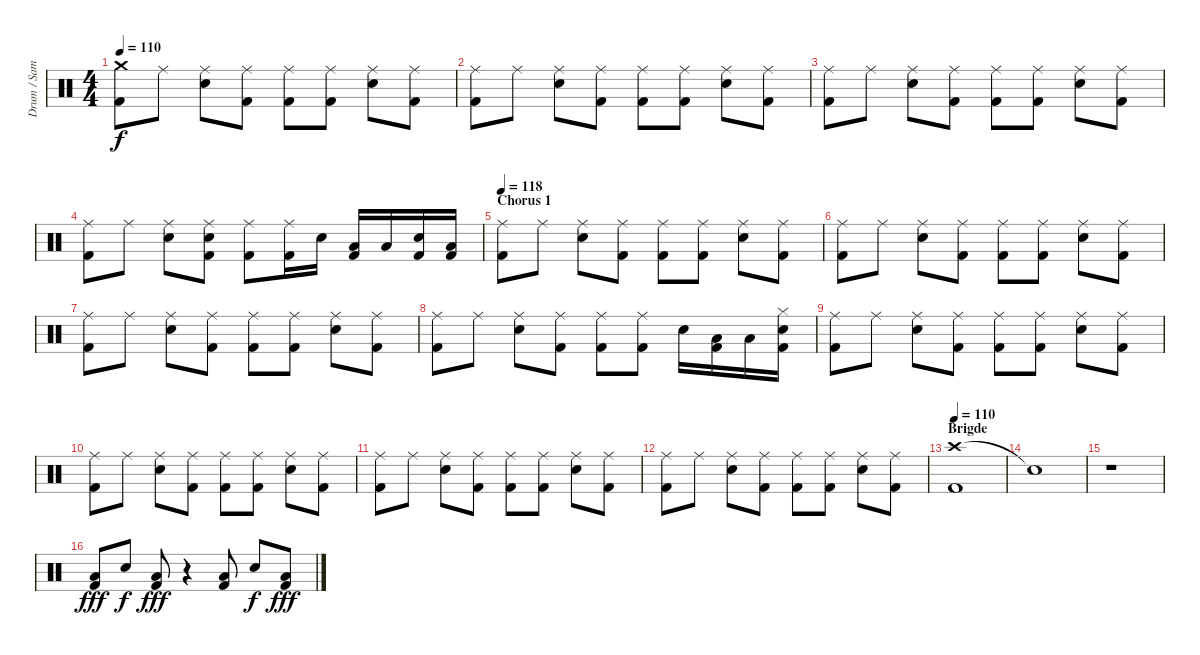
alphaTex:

\track ("Drum / Sam" "Drum / Sam") {instrument percussion}
\staff {score}
\articulation defaults
\ts (4 4)
\tempo 110
\clef neutral
\ks c
("Crash medium (hit)" "Kick (hit) 2").8{dy f} "Ride (middle)".8 ("Ride (middle)" "Snare (hit) 2").8 ("Ride (middle)" "Kick (hit) 2").8 ("Ride (middle)" "Kick (hit) 2").8 ("Ride (middle)" "Kick (hit) 2").8 ("Ride (middle)" "Snare (hit) 2").8 ("Ride (middle)" "Kick (hit) 2").8 |
("Ride (middle)" "Kick (hit) 2").8 "Ride (middle)".8 ("Ride (middle)" "Snare (hit) 2").8 ("Ride (middle)" "Kick (hit) 2").8 ("Ride (middle)" "Kick (hit) 2").8 ("Ride (middle)" "Kick (hit) 2").8 ("Ride (middle)" "Snare (hit) 2").8 ("Ride (middle)" "Kick (hit) 2").8 |
("Ride (middle)" "Kick (hit) 2").8 "Ride (middle)".8 ("Ride (middle)" "Snare (hit) 2").8 ("Ride (middle)" "Kick (hit) 2").8 ("Ride (middle)" "Kick (hit) 2").8 ("Ride (middle)" "Kick (hit) 2").8 ("Ride (middle)" "Snare (hit) 2").8 ("Ride (middle)" "Kick (hit) 2").8 |
("Ride (middle)" "Kick (hit) 2").8 "Ride (middle)".8 ("Ride (middle)" "Snare (hit) 2").8 ("Ride (middle)" "Snare (hit) 2" "Kick (hit) 2").8 ("Ride (middle)" "Kick (hit) 2").8 ("Ride (middle)" "Kick (hit) 2").16 "Snare (hit) 2".16 ("Low Tom (hit)" "Kick (hit) 2").16 "Low Tom (hit)".16 ("Snare (hit) 2" "Kick (hit) 2").16 ("Low Tom (hit)" "Kick (hit) 2").16 |
\section ("" "Chorus 1")
\tempo 118
("Ride (middle)" "Kick (hit) 2").8 "Ride (middle)".8 ("Ride (middle)" "Snare (hit) 2").8 ("Ride (middle)" "Kick (hit) 2").8 ("Ride (middle)" "Kick (hit) 2").8 ("Ride (middle)" "Kick (hit) 2").8 ("Ride (middle)" "Snare (hit) 2").8 ("Ride (middle)" "Kick (hit) 2").8 |
("Ride (middle)" "Kick (hit) 2").8 "Ride (middle)".8 ("Ride (middle)" "Snare (hit) 2").8 ("Ride (middle)" "Kick (hit) 2").8 ("Ride (middle)" "Kick (hit) 2").8 ("Ride (middle)" "Kick (hit) 2").8 ("Ride (middle)" "Snare (hit) 2").8 ("Ride (middle)" "Kick (hit) 2").8 |
("Ride (middle)" "Kick (hit) 2").8 "Ride (middle)".8 ("Ride (middle)" "Snare (hit) 2").8 ("Ride (middle)" "Kick (hit) 2").8 ("Ride (middle)" "Kick (hit) 2").8 ("Ride (middle)" "Kick (hit) 2").8 ("Ride (middle)" "Snare (hit) 2").8 ("Ride (middle)" "Kick (hit) 2").8 |
("Ride (middle)" "Kick (hit) 2").8 "Ride (middle)".8 ("Ride (middle)" "Snare (hit) 2").8 ("Ride (middle)" "Kick (hit) 2").8 ("Ride (middle)" "Kick (hit) 2").8 ("Ride (middle)" "Kick (hit) 2").8 "Snare (hit) 2".16 ("Low Tom (hit)" "Kick (hit) 2").16 "Low Tom (hit)".16 ("Hi-Hat (closed)" "Snare (hit) 2" "Kick (hit) 2").16 |
("Ride (middle)" "Kick (hit) 2").8 "Ride (middle)".8 ("Ride (middle)" "Snare (hit) 2").8 ("Ride (middle)" "Kick (hit) 2").8 ("Ride (middle)" "Kick (hit) 2").8 ("Ride (middle)" "Kick (hit) 2").8 ("Ride (middle)" "Snare (hit) 2").8 ("Ride (middle)" "Kick (hit) 2").8 |
("Ride (middle)" "Kick (hit) 2").8 "Ride (middle)".8 ("Ride (middle)" "Snare (hit) 2").8 ("Ride (middle)" "Kick (hit) 2").8 ("Ride (middle)" "Kick (hit) 2").8 ("Ride (middle)" "Kick (hit) 2").8 ("Ride (middle)" "Snare (hit) 2").8 ("Ride (middle)" "Kick (hit) 2").8 |
("Ride (middle)" "Kick (hit) 2").8 "Ride (middle)".8 ("Ride (middle)" "Snare (hit) 2").8 ("Ride (middle)" "Kick (hit) 2").8 ("Ride (middle)" "Kick (hit) 2").8 ("Ride (middle)" "Kick (hit) 2").8 ("Ride (middle)" "Snare (hit) 2").8 ("Ride (middle)" "Kick (hit) 2").8 |
("Ride (middle)" "Kick (hit) 2").8 "Ride (middle)".8 ("Ride (middle)" "Snare (hit) 2").8 ("Ride (middle)" "Kick (hit) 2").8 ("Ride (middle)" "Kick (hit) 2").8 ("Ride (middle)" "Kick (hit) 2").8 ("Ride (middle)" "Snare (hit) 2").8 ("Ride (middle)" "Kick (hit) 2").8 |
\section ("" "Brigde")
\tempo 110
("Crash high (hit)" "Kick (hit) 2").1 |
"Snare (hit)"{t}.1 |
r.1 |
("Low Tom (hit)" "Kick (hit) 2").8{dy fff} "Snare (hit) 2".8{dy f} ("Low Tom (hit)" "Kick (hit) 2").8{dy fff} r.4 ("Low Tom (hit)" "Kick (hit) 2").8 "Snare (hit) 2".8{dy f} ("Low Tom (hit)" "Kick (hit) 2").8{dy fff}
